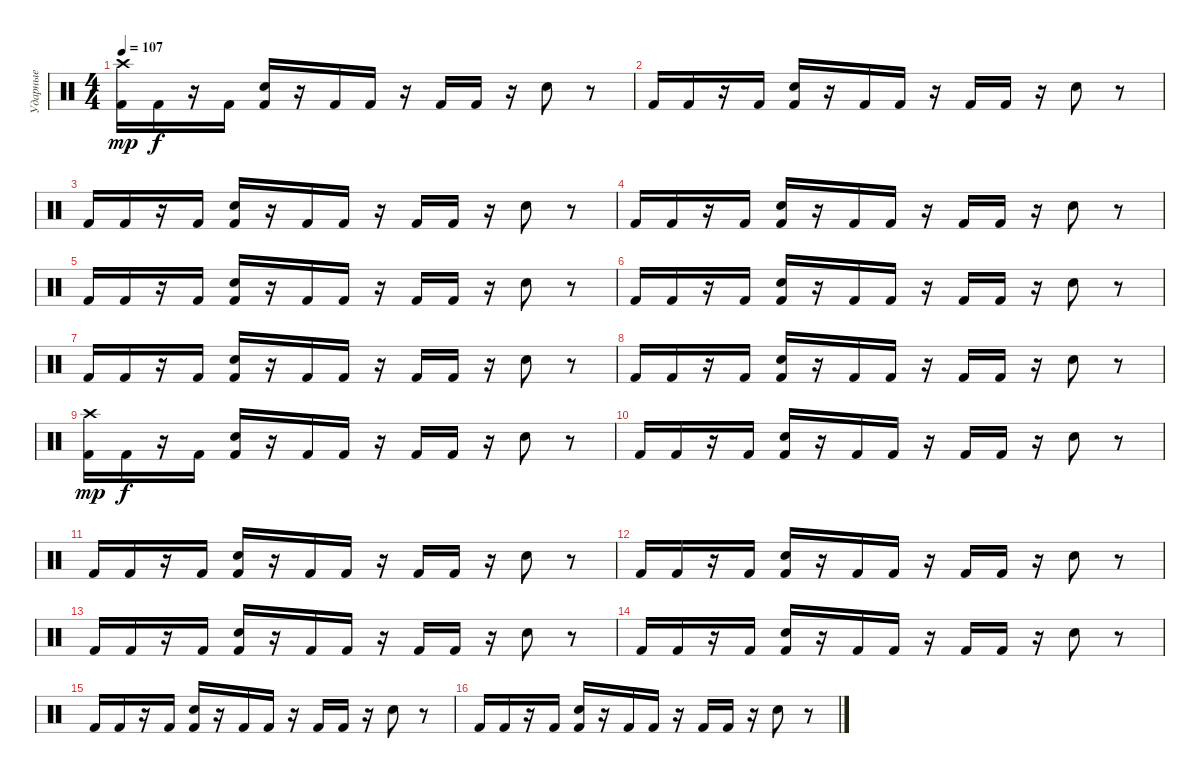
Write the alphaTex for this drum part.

\track ("Ударные" "Ударные") {instrument percussion}
\staff {score}
\articulation defaults
\ts (4 4)
\tempo 107
\clef neutral
\ks c
("Crash high (hit)" "Kick (hit) 2").16{dy mp} "Kick (hit) 2".16{dy f} r.16 "Kick (hit) 2".16 ("Snare (hit) 2" "Kick (hit) 2").16 r.16 "Kick (hit) 2".16 "Kick (hit) 2".16 r.16 "Kick (hit) 2".16 "Kick (hit) 2".16 r.16 "Snare (hit) 2".8 r.8 |
"Kick (hit) 2".16 "Kick (hit) 2".16 r.16 "Kick (hit) 2".16 ("Snare (hit) 2" "Kick (hit) 2").16 r.16 "Kick (hit) 2".16 "Kick (hit) 2".16 r.16 "Kick (hit) 2".16 "Kick (hit) 2".16 r.16 "Snare (hit) 2".8 r.8 |
"Kick (hit) 2".16 "Kick (hit) 2".16 r.16 "Kick (hit) 2".16 ("Snare (hit) 2" "Kick (hit) 2").16 r.16 "Kick (hit) 2".16 "Kick (hit) 2".16 r.16 "Kick (hit) 2".16 "Kick (hit) 2".16 r.16 "Snare (hit) 2".8 r.8 |
"Kick (hit) 2".16 "Kick (hit) 2".16 r.16 "Kick (hit) 2".16 ("Snare (hit) 2" "Kick (hit) 2").16 r.16 "Kick (hit) 2".16 "Kick (hit) 2".16 r.16 "Kick (hit) 2".16 "Kick (hit) 2".16 r.16 "Snare (hit) 2".8 r.8 |
"Kick (hit) 2".16 "Kick (hit) 2".16 r.16 "Kick (hit) 2".16 ("Snare (hit) 2" "Kick (hit) 2").16 r.16 "Kick (hit) 2".16 "Kick (hit) 2".16 r.16 "Kick (hit) 2".16 "Kick (hit) 2".16 r.16 "Snare (hit) 2".8 r.8 |
"Kick (hit) 2".16 "Kick (hit) 2".16 r.16 "Kick (hit) 2".16 ("Snare (hit) 2" "Kick (hit) 2").16 r.16 "Kick (hit) 2".16 "Kick (hit) 2".16 r.16 "Kick (hit) 2".16 "Kick (hit) 2".16 r.16 "Snare (hit) 2".8 r.8 |
"Kick (hit) 2".16 "Kick (hit) 2".16 r.16 "Kick (hit) 2".16 ("Snare (hit) 2" "Kick (hit) 2").16 r.16 "Kick (hit) 2".16 "Kick (hit) 2".16 r.16 "Kick (hit) 2".16 "Kick (hit) 2".16 r.16 "Snare (hit) 2".8 r.8 |
"Kick (hit) 2".16 "Kick (hit) 2".16 r.16 "Kick (hit) 2".16 ("Snare (hit) 2" "Kick (hit) 2").16 r.16 "Kick (hit) 2".16 "Kick (hit) 2".16 r.16 "Kick (hit) 2".16 "Kick (hit) 2".16 r.16 "Snare (hit) 2".8 r.8 |
("Crash high (hit)" "Kick (hit) 2").16{dy mp} "Kick (hit) 2".16{dy f} r.16 "Kick (hit) 2".16 ("Snare (hit) 2" "Kick (hit) 2").16 r.16 "Kick (hit) 2".16 "Kick (hit) 2".16 r.16 "Kick (hit) 2".16 "Kick (hit) 2".16 r.16 "Snare (hit) 2".8 r.8 |
"Kick (hit) 2".16 "Kick (hit) 2".16 r.16 "Kick (hit) 2".16 ("Snare (hit) 2" "Kick (hit) 2").16 r.16 "Kick (hit) 2".16 "Kick (hit) 2".16 r.16 "Kick (hit) 2".16 "Kick (hit) 2".16 r.16 "Snare (hit) 2".8 r.8 |
"Kick (hit) 2".16 "Kick (hit) 2".16 r.16 "Kick (hit) 2".16 ("Snare (hit) 2" "Kick (hit) 2").16 r.16 "Kick (hit) 2".16 "Kick (hit) 2".16 r.16 "Kick (hit) 2".16 "Kick (hit) 2".16 r.16 "Snare (hit) 2".8 r.8 |
"Kick (hit) 2".16 "Kick (hit) 2".16 r.16 "Kick (hit) 2".16 ("Snare (hit) 2" "Kick (hit) 2").16 r.16 "Kick (hit) 2".16 "Kick (hit) 2".16 r.16 "Kick (hit) 2".16 "Kick (hit) 2".16 r.16 "Snare (hit) 2".8 r.8 |
"Kick (hit) 2".16 "Kick (hit) 2".16 r.16 "Kick (hit) 2".16 ("Snare (hit) 2" "Kick (hit) 2").16 r.16 "Kick (hit) 2".16 "Kick (hit) 2".16 r.16 "Kick (hit) 2".16 "Kick (hit) 2".16 r.16 "Snare (hit) 2".8 r.8 |
"Kick (hit) 2".16 "Kick (hit) 2".16 r.16 "Kick (hit) 2".16 ("Snare (hit) 2" "Kick (hit) 2").16 r.16 "Kick (hit) 2".16 "Kick (hit) 2".16 r.16 "Kick (hit) 2".16 "Kick (hit) 2".16 r.16 "Snare (hit) 2".8 r.8 |
"Kick (hit) 2".16 "Kick (hit) 2".16 r.16 "Kick (hit) 2".16 ("Snare (hit) 2" "Kick (hit) 2").16 r.16 "Kick (hit) 2".16 "Kick (hit) 2".16 r.16 "Kick (hit) 2".16 "Kick (hit) 2".16 r.16 "Snare (hit) 2".8 r.8 |
"Kick (hit) 2".16 "Kick (hit) 2".16 r.16 "Kick (hit) 2".16 ("Snare (hit) 2" "Kick (hit) 2").16 r.16 "Kick (hit) 2".16 "Kick (hit) 2".16 r.16 "Kick (hit) 2".16 "Kick (hit) 2".16 r.16 "Snare (hit) 2".8 r.8
